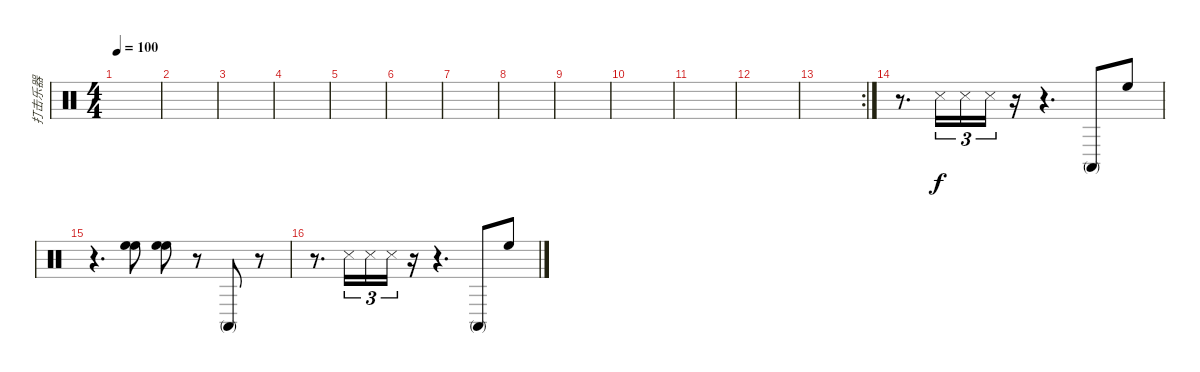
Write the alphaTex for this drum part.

\track ("打击乐器" "打击乐器") {instrument percussion bank 4}
\staff {score}
\articulation defaults
\ts (4 4)
\tempo 100
\clef neutral
\ks c
|
|
|
|
|
|
|
|
|
|
|
|
\rc 2
|
r.8{d} "Metronome (hit)".16{tu (3 2)} "Metronome (hit)".16{tu (3 2)} "Metronome (hit)".16{tu (3 2)} r.16 r.4{d} "Conga high (mute)".8 "High Floor Tom (hit)".8 |
r.4{d} ("High Floor Tom (hit)" "High Floor Tom (hit)").8 ("High Floor Tom (hit)" "High Floor Tom (hit)").8 r.8 "Conga high (mute)".8 r.8 |
r.8{d} "Metronome (hit)".16{tu (3 2)} "Metronome (hit)".16{tu (3 2)} "Metronome (hit)".16{tu (3 2)} r.16 r.4{d} "Conga high (mute)".8 "High Floor Tom (hit)".8
